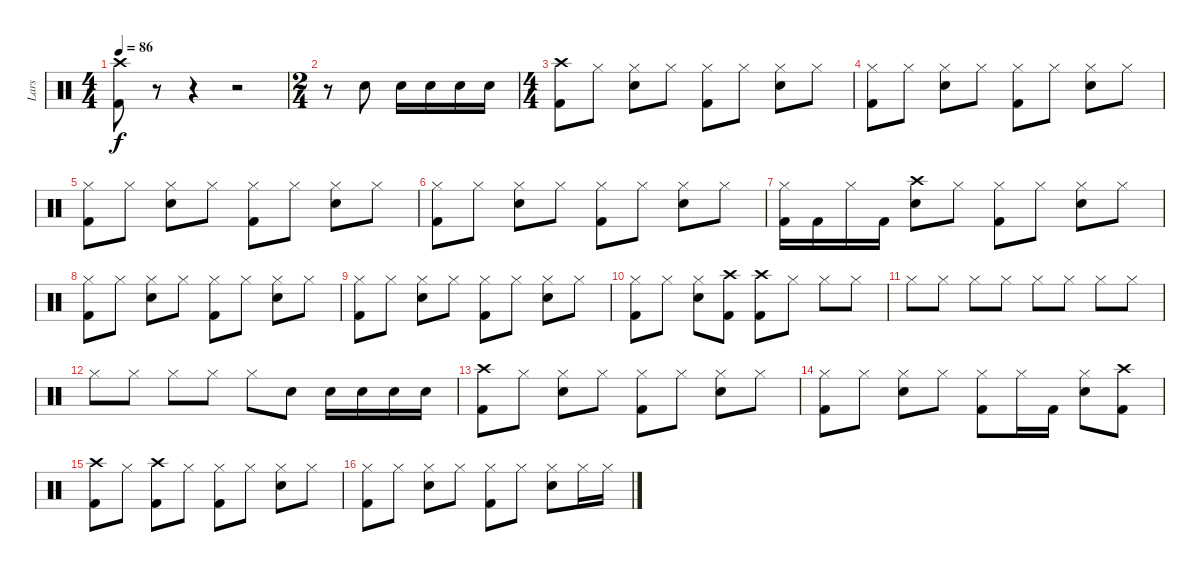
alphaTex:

\track ("Lars" "Lars") {instrument percussion}
\staff {score}
\articulation defaults
\ts (4 4)
\tempo 86
\clef neutral
\ks c
("Crash high (hit)" "Kick (hit) 2").8{dy f} r.8 r.4 r.2 |
\ts (2 4)
r.8 "Electric Snare (hit)".8 "Electric Snare (hit)".16 "Electric Snare (hit)".16 "Electric Snare (hit)".16 "Electric Snare (hit)".16 |
\ts (4 4)
("Crash high (hit)" "Kick (hit) 2").8 "Hi-Hat (closed)".8 ("Hi-Hat (closed)" "Electric Snare (hit)").8 "Hi-Hat (closed)".8 ("Hi-Hat (closed)" "Kick (hit) 2").8 "Hi-Hat (closed)".8 ("Hi-Hat (closed)" "Electric Snare (hit)").8 "Hi-Hat (closed)".8 |
("Hi-Hat (closed)" "Kick (hit) 2").8 "Hi-Hat (closed)".8 ("Hi-Hat (closed)" "Electric Snare (hit)").8 "Hi-Hat (closed)".8 ("Hi-Hat (closed)" "Kick (hit) 2").8 "Hi-Hat (closed)".8 ("Hi-Hat (closed)" "Electric Snare (hit)").8 "Hi-Hat (closed)".8 |
("Hi-Hat (closed)" "Kick (hit) 2").8 "Hi-Hat (closed)".8 ("Hi-Hat (closed)" "Electric Snare (hit)").8 "Hi-Hat (closed)".8 ("Hi-Hat (closed)" "Kick (hit) 2").8 "Hi-Hat (closed)".8 ("Hi-Hat (closed)" "Electric Snare (hit)").8 "Hi-Hat (closed)".8 |
("Hi-Hat (closed)" "Kick (hit) 2").8 "Hi-Hat (closed)".8 ("Hi-Hat (closed)" "Electric Snare (hit)").8 "Hi-Hat (closed)".8 ("Hi-Hat (closed)" "Kick (hit) 2").8 "Hi-Hat (closed)".8 ("Hi-Hat (closed)" "Electric Snare (hit)").8 "Hi-Hat (closed)".8 |
("Hi-Hat (closed)" "Kick (hit) 2").16 "Kick (hit) 2".16 "Hi-Hat (closed)".16 "Kick (hit) 2".16 ("Crash high (hit)" "Electric Snare (hit)").8 "Hi-Hat (closed)".8 ("Hi-Hat (closed)" "Kick (hit) 2").8 "Hi-Hat (closed)".8 ("Hi-Hat (closed)" "Electric Snare (hit)").8 "Hi-Hat (closed)".8 |
("Hi-Hat (closed)" "Kick (hit) 2").8 "Hi-Hat (closed)".8 ("Hi-Hat (closed)" "Electric Snare (hit)").8 "Hi-Hat (closed)".8 ("Hi-Hat (closed)" "Kick (hit) 2").8 "Hi-Hat (closed)".8 ("Hi-Hat (closed)" "Electric Snare (hit)").8 "Hi-Hat (closed)".8 |
("Hi-Hat (closed)" "Kick (hit) 2").8 "Hi-Hat (closed)".8 ("Hi-Hat (closed)" "Electric Snare (hit)").8 "Hi-Hat (closed)".8 ("Hi-Hat (closed)" "Kick (hit) 2").8 "Hi-Hat (closed)".8 ("Hi-Hat (closed)" "Electric Snare (hit)").8 "Hi-Hat (closed)".8 |
("Hi-Hat (closed)" "Kick (hit) 2").8 "Hi-Hat (closed)".8 ("Hi-Hat (closed)" "Electric Snare (hit)").8 ("Crash high (hit)" "Kick (hit) 2").8 ("Crash high (hit)" "Kick (hit) 2").8 "Hi-Hat (closed)".8 "Hi-Hat (closed)".8 "Hi-Hat (closed)".8 |
"Hi-Hat (closed)".8 "Hi-Hat (closed)".8 "Hi-Hat (closed)".8 "Hi-Hat (closed)".8 "Hi-Hat (closed)".8 "Hi-Hat (closed)".8 "Hi-Hat (closed)".8 "Hi-Hat (closed)".8 |
"Hi-Hat (closed)".8 "Hi-Hat (closed)".8 "Hi-Hat (closed)".8 "Hi-Hat (closed)".8 "Hi-Hat (closed)".8 "Electric Snare (hit)".8 "Electric Snare (hit)".16 "Electric Snare (hit)".16 "Electric Snare (hit)".16 "Electric Snare (hit)".16 |
("Crash high (hit)" "Kick (hit) 2").8 "Hi-Hat (closed)".8 ("Hi-Hat (closed)" "Electric Snare (hit)").8 "Hi-Hat (closed)".8 ("Hi-Hat (closed)" "Kick (hit) 2").8 "Hi-Hat (closed)".8 ("Hi-Hat (closed)" "Electric Snare (hit)").8 "Hi-Hat (closed)".8 |
("Hi-Hat (closed)" "Kick (hit) 2").8 "Hi-Hat (closed)".8 ("Hi-Hat (closed)" "Electric Snare (hit)").8 "Hi-Hat (closed)".8 ("Hi-Hat (closed)" "Kick (hit) 2").8 "Hi-Hat (closed)".16 "Kick (hit) 2".16 ("Hi-Hat (closed)" "Electric Snare (hit)").8 ("Crash high (hit)" "Kick (hit) 2").8 |
("Crash high (hit)" "Kick (hit) 2").8 "Hi-Hat (closed)".8 ("Crash high (hit)" "Kick (hit) 2").8 "Hi-Hat (closed)".8 ("Hi-Hat (closed)" "Kick (hit) 2").8 "Hi-Hat (closed)".8 ("Hi-Hat (closed)" "Electric Snare (hit)").8 "Hi-Hat (closed)".8 |
("Hi-Hat (closed)" "Kick (hit) 2").8 "Hi-Hat (closed)".8 ("Hi-Hat (closed)" "Electric Snare (hit)").8 "Hi-Hat (closed)".8 ("Hi-Hat (closed)" "Kick (hit) 2").8 "Hi-Hat (closed)".8 ("Hi-Hat (closed)" "Electric Snare (hit)").8 "Hi-Hat (closed)".16 "Hi-Hat (closed)".16
